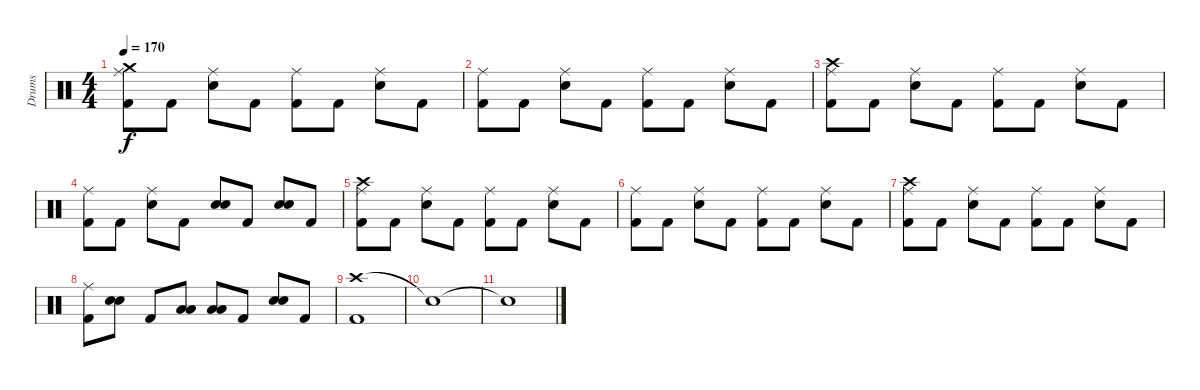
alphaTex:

\track ("Drums" "Drums") {instrument percussion}
\staff {score}
\articulation defaults
\ts (4 4)
\tempo 170
\clef neutral
\ks c
("Crash medium (hit)" "Ride (middle)" "Kick (hit) 2").8{dy f} "Kick (hit) 2".8 ("Ride (middle)" "Snare (hit) 2").8 "Kick (hit) 2".8 ("Ride (middle)" "Kick (hit) 2").8 "Kick (hit) 2".8 ("Ride (middle)" "Snare (hit) 2").8 "Kick (hit) 2".8 |
("Ride (middle)" "Kick (hit) 2").8 "Kick (hit) 2".8 ("Ride (middle)" "Snare (hit) 2").8 "Kick (hit) 2".8 ("Ride (middle)" "Kick (hit) 2").8 "Kick (hit) 2".8 ("Ride (middle)" "Snare (hit) 2").8 "Kick (hit) 2".8 |
("Crash high (hit)" "Ride (middle)" "Kick (hit) 2").8 "Kick (hit) 2".8 ("Ride (middle)" "Snare (hit) 2").8 "Kick (hit) 2".8 ("Ride (middle)" "Kick (hit) 2").8 "Kick (hit) 2".8 ("Ride (middle)" "Snare (hit) 2").8 "Kick (hit) 2".8 |
("Ride (middle)" "Kick (hit) 2").8 "Kick (hit) 2".8 ("Ride (middle)" "Snare (hit) 2").8 "Kick (hit) 2".8 ("Snare (hit) 2" "Snare (hit) 2").8 "Kick (hit) 2".8 ("Snare (hit) 2" "Snare (hit) 2").8 "Kick (hit) 2".8 |
("Crash high (hit)" "Ride (middle)" "Kick (hit) 2").8 "Kick (hit) 2".8 ("Ride (middle)" "Snare (hit) 2").8 "Kick (hit) 2".8 ("Ride (middle)" "Kick (hit) 2").8 "Kick (hit) 2".8 ("Ride (middle)" "Snare (hit) 2").8 "Kick (hit) 2".8 |
("Ride (middle)" "Kick (hit) 2").8 "Kick (hit) 2".8 ("Ride (middle)" "Snare (hit) 2").8 "Kick (hit) 2".8 ("Ride (middle)" "Kick (hit) 2").8 "Kick (hit) 2".8 ("Ride (middle)" "Snare (hit) 2").8 "Kick (hit) 2".8 |
("Crash high (hit)" "Ride (middle)" "Kick (hit) 2").8 "Kick (hit) 2".8 ("Ride (middle)" "Snare (hit) 2").8 "Kick (hit) 2".8 ("Ride (middle)" "Kick (hit) 2").8 "Kick (hit) 2".8 ("Ride (middle)" "Snare (hit) 2").8 "Kick (hit) 2".8 |
("Ride (middle)" "Kick (hit) 2").8 ("Snare (hit) 2" "Snare (hit) 2").8 "Kick (hit) 2".8 ("Low Tom (hit)" "Low Tom (hit)").8 ("Low Tom (hit)" "Low Tom (hit)").8 "Kick (hit) 2".8 ("Snare (hit) 2" "Snare (hit) 2").8 "Kick (hit) 2".8 |
("Crash high (hit)" "Kick (hit) 2").1 |
"Snare (hit)"{t}.1 |
"Snare (hit)"{t}.1
